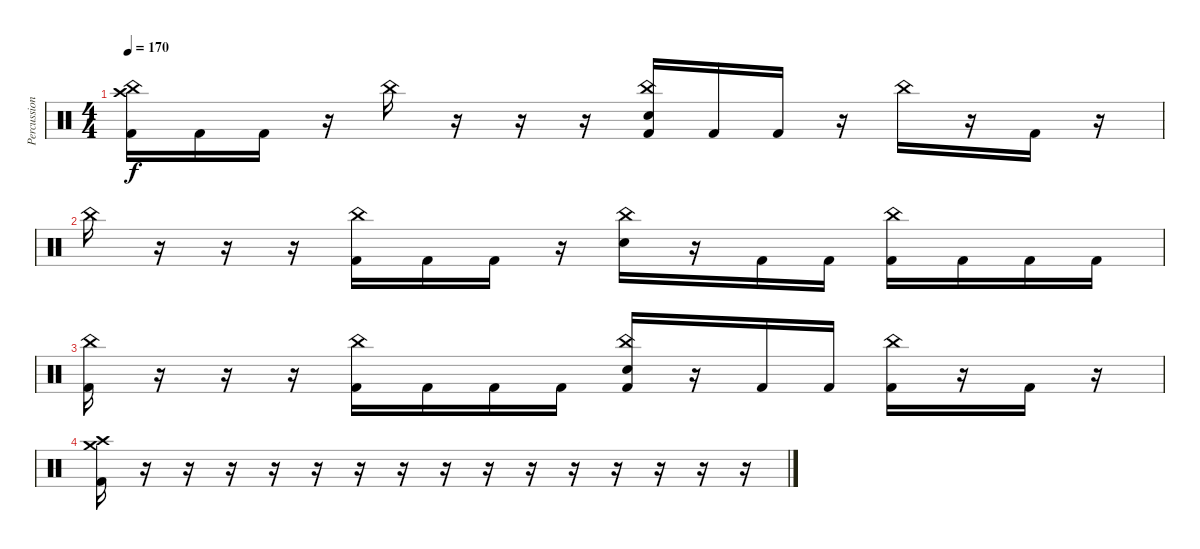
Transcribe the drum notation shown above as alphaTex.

\track ("Percussion" "Percussion") {instrument percussion}
\staff {score}
\articulation defaults
\ts (4 4)
\tempo 170
\clef neutral
\ks c
("Kick (hit) 2" "China (hit)" "Crash high (hit)").16{dy f} "Kick (hit) 2".16 "Kick (hit) 2".16 r.16 "China (hit)".16 r.16 r.16 r.16 ("Kick (hit) 2" "Electric Snare (hit)" "China (hit)").16 "Kick (hit) 2".16 "Kick (hit) 2".16 r.16 "China (hit)".16 r.16 "Kick (hit) 2".16 r.16 |
"China (hit)".16 r.16 r.16 r.16 ("Kick (hit) 2" "China (hit)").16 "Kick (hit) 2".16 "Kick (hit) 2".16 r.16 ("Electric Snare (hit)" "China (hit)").16 r.16 "Kick (hit) 2".16 "Kick (hit) 2".16 ("Kick (hit) 2" "China (hit)").16 "Kick (hit) 2".16 "Kick (hit) 2".16 "Kick (hit) 2".16 |
("Kick (hit) 2" "China (hit)").16 r.16 r.16 r.16 ("Kick (hit) 2" "China (hit)").16 "Kick (hit) 2".16 "Kick (hit) 2".16 "Kick (hit) 2".16 ("Kick (hit) 2" "Electric Snare (hit)" "China (hit)").16 r.16 "Kick (hit) 2".16 "Kick (hit) 2".16 ("Kick (hit) 2" "China (hit)").16 r.16 "Kick (hit) 2".16 r.16 |
("Kick (hit) 2" "Crash medium (hit)" "Crash high (hit)").16 r.16 r.16 r.16 r.16 r.16 r.16 r.16 r.16 r.16 r.16 r.16 r.16 r.16 r.16 r.16
